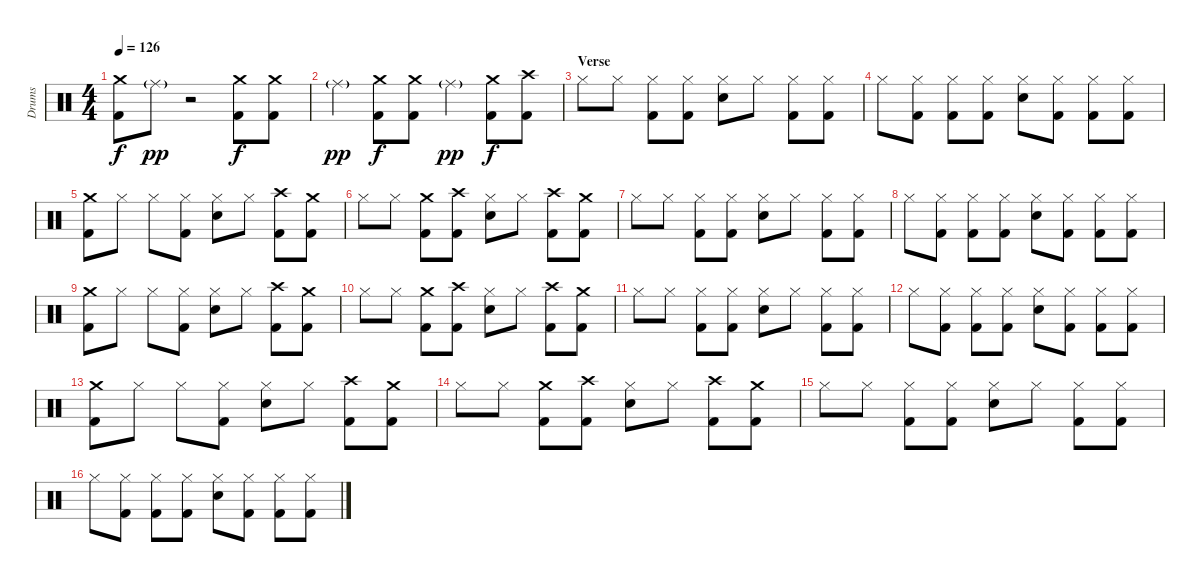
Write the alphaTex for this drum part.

\bracketExtendMode groupsimilarinstruments
\track ("Drumkit" "Drums") {solo instrument percussion}
\staff {score}
\articulation defaults
\ts (4 4)
\tempo 126
\clef neutral
\ks c
("Crash medium (hit)" "Kick (hit) 2").8{dy f} "Ride (middle)"{g}.8{dy pp} r.2 ("Crash medium (hit)" "Kick (hit) 2").8{dy f} ("Crash medium (hit)" "Kick (hit) 2").8 |
"Ride (middle)"{g}.4{dy pp} ("Crash medium (hit)" "Kick (hit) 2").8{dy f} ("Crash medium (hit)" "Kick (hit) 2").8 "Ride (middle)"{g}.4{dy pp} ("Crash medium (hit)" "Kick (hit) 2").8{dy f} ("Crash high (hit)" "Kick (hit) 2").8 |
\section ("" "Verse")
"Hi-Hat (closed)".8 "Hi-Hat (closed)".8 ("Hi-Hat (closed)" "Kick (hit) 2").8 ("Hi-Hat (closed)" "Kick (hit) 2").8 ("Hi-Hat (closed)" "Snare (hit) 2").8 "Hi-Hat (closed)".8 ("Hi-Hat (closed)" "Kick (hit) 2").8 ("Hi-Hat (closed)" "Kick (hit) 2").8 |
"Hi-Hat (closed)".8 ("Hi-Hat (closed)" "Kick (hit) 2").8 ("Hi-Hat (closed)" "Kick (hit) 2").8 ("Hi-Hat (closed)" "Kick (hit) 2").8 ("Hi-Hat (closed)" "Snare (hit) 2").8 ("Hi-Hat (closed)" "Kick (hit) 2").8 ("Hi-Hat (closed)" "Kick (hit) 2").8 ("Hi-Hat (closed)" "Kick (hit) 2").8 |
("Crash medium (hit)" "Kick (hit) 2").8 "Hi-Hat (closed)".8 "Hi-Hat (closed)".8 ("Hi-Hat (closed)" "Kick (hit) 2").8 ("Hi-Hat (closed)" "Snare (hit) 2").8 "Hi-Hat (closed)".8 ("Crash high (hit)" "Kick (hit) 2").8 ("Crash medium (hit)" "Kick (hit) 2").8 |
"Hi-Hat (closed)".8 "Hi-Hat (closed)".8 ("Crash medium (hit)" "Kick (hit) 2").8 ("Crash high (hit)" "Kick (hit) 2").8 ("Hi-Hat (closed)" "Snare (hit) 2").8 "Hi-Hat (closed)".8 ("Crash high (hit)" "Kick (hit) 2").8 ("Crash medium (hit)" "Kick (hit) 2").8 |
"Hi-Hat (closed)".8 "Hi-Hat (closed)".8 ("Hi-Hat (closed)" "Kick (hit) 2").8 ("Hi-Hat (closed)" "Kick (hit) 2").8 ("Hi-Hat (closed)" "Snare (hit) 2").8 "Hi-Hat (closed)".8 ("Hi-Hat (closed)" "Kick (hit) 2").8 ("Hi-Hat (closed)" "Kick (hit) 2").8 |
"Hi-Hat (closed)".8 ("Hi-Hat (closed)" "Kick (hit) 2").8 ("Hi-Hat (closed)" "Kick (hit) 2").8 ("Hi-Hat (closed)" "Kick (hit) 2").8 ("Hi-Hat (closed)" "Snare (hit) 2").8 ("Hi-Hat (closed)" "Kick (hit) 2").8 ("Hi-Hat (closed)" "Kick (hit) 2").8 ("Hi-Hat (closed)" "Kick (hit) 2").8 |
("Crash medium (hit)" "Kick (hit) 2").8 "Hi-Hat (closed)".8 "Hi-Hat (closed)".8 ("Hi-Hat (closed)" "Kick (hit) 2").8 ("Hi-Hat (closed)" "Snare (hit) 2").8 "Hi-Hat (closed)".8 ("Crash high (hit)" "Kick (hit) 2").8 ("Crash medium (hit)" "Kick (hit) 2").8 |
"Hi-Hat (closed)".8 "Hi-Hat (closed)".8 ("Crash medium (hit)" "Kick (hit) 2").8 ("Crash high (hit)" "Kick (hit) 2").8 ("Hi-Hat (closed)" "Snare (hit) 2").8 "Hi-Hat (closed)".8 ("Crash high (hit)" "Kick (hit) 2").8 ("Crash medium (hit)" "Kick (hit) 2").8 |
"Hi-Hat (closed)".8 "Hi-Hat (closed)".8 ("Hi-Hat (closed)" "Kick (hit) 2").8 ("Hi-Hat (closed)" "Kick (hit) 2").8 ("Hi-Hat (closed)" "Snare (hit) 2").8 "Hi-Hat (closed)".8 ("Hi-Hat (closed)" "Kick (hit) 2").8 ("Hi-Hat (closed)" "Kick (hit) 2").8 |
"Hi-Hat (closed)".8 ("Hi-Hat (closed)" "Kick (hit) 2").8 ("Hi-Hat (closed)" "Kick (hit) 2").8 ("Hi-Hat (closed)" "Kick (hit) 2").8 ("Hi-Hat (closed)" "Snare (hit) 2").8 ("Hi-Hat (closed)" "Kick (hit) 2").8 ("Hi-Hat (closed)" "Kick (hit) 2").8 ("Hi-Hat (closed)" "Kick (hit) 2").8 |
("Crash medium (hit)" "Kick (hit) 2").8 "Hi-Hat (closed)".8 "Hi-Hat (closed)".8 ("Hi-Hat (closed)" "Kick (hit) 2").8 ("Hi-Hat (closed)" "Snare (hit) 2").8 "Hi-Hat (closed)".8 ("Crash high (hit)" "Kick (hit) 2").8 ("Crash medium (hit)" "Kick (hit) 2").8 |
"Hi-Hat (closed)".8 "Hi-Hat (closed)".8 ("Crash medium (hit)" "Kick (hit) 2").8 ("Crash high (hit)" "Kick (hit) 2").8 ("Hi-Hat (closed)" "Snare (hit) 2").8 "Hi-Hat (closed)".8 ("Crash high (hit)" "Kick (hit) 2").8 ("Crash medium (hit)" "Kick (hit) 2").8 |
"Hi-Hat (closed)".8 "Hi-Hat (closed)".8 ("Hi-Hat (closed)" "Kick (hit) 2").8 ("Hi-Hat (closed)" "Kick (hit) 2").8 ("Hi-Hat (closed)" "Snare (hit) 2").8 "Hi-Hat (closed)".8 ("Hi-Hat (closed)" "Kick (hit) 2").8 ("Hi-Hat (closed)" "Kick (hit) 2").8 |
"Hi-Hat (closed)".8 ("Hi-Hat (closed)" "Kick (hit) 2").8 ("Hi-Hat (closed)" "Kick (hit) 2").8 ("Hi-Hat (closed)" "Kick (hit) 2").8 ("Hi-Hat (closed)" "Snare (hit) 2").8 ("Hi-Hat (closed)" "Kick (hit) 2").8 ("Hi-Hat (closed)" "Kick (hit) 2").8 ("Hi-Hat (closed)" "Kick (hit) 2").8
